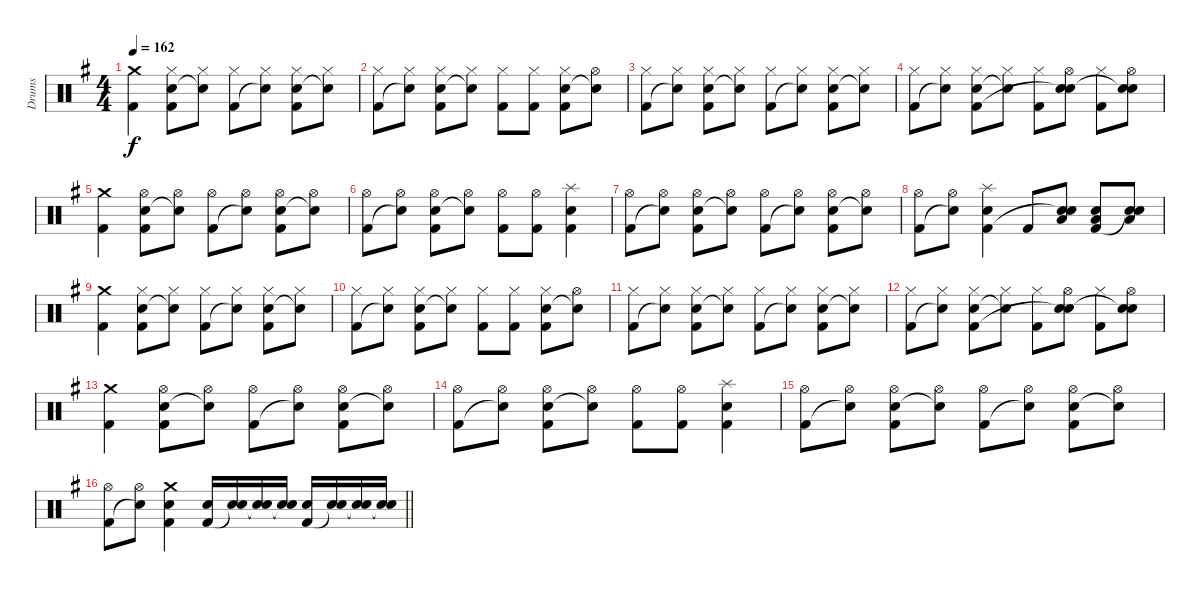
\track ("Drums" "Drums") {instrument percussion}
\staff {score}
\articulation defaults
\ts (4 4)
\tempo 162
\clef neutral
\ks g
("Crash medium (hit)" "Kick (hit) 2").4{dy f} ("Hi-Hat (closed)" "Electric Snare (hit)" "Kick (hit) 2").8 ("Hi-Hat (closed)" "Snare (hit)"{t}).8 ("Hi-Hat (closed)" "Kick (hit) 2").8 ("Hi-Hat (closed)" "Snare (hit)"{t}).8 ("Hi-Hat (closed)" "Electric Snare (hit)" "Kick (hit) 2").8 ("Hi-Hat (closed)" "Snare (hit)"{t}).8 |
("Hi-Hat (closed)" "Kick (hit) 2").8 ("Hi-Hat (closed)" "Snare (hit)"{t}).8 ("Hi-Hat (closed)" "Electric Snare (hit)" "Kick (hit) 2").8 ("Hi-Hat (closed)" "Snare (hit)"{t}).8 ("Hi-Hat (closed)" "Kick (hit) 2").8 ("Hi-Hat (closed)" "Kick (hit) 2").8 ("Hi-Hat (closed)" "Electric Snare (hit)" "Kick (hit) 2").8 ("Hi-Hat (open)" "Snare (hit)"{t}).8 |
("Hi-Hat (closed)" "Kick (hit) 2").8 ("Hi-Hat (closed)" "Snare (hit)"{t}).8 ("Hi-Hat (closed)" "Electric Snare (hit)" "Kick (hit) 2").8 ("Hi-Hat (closed)" "Snare (hit)"{t}).8 ("Hi-Hat (closed)" "Kick (hit) 2").8 ("Hi-Hat (closed)" "Snare (hit)"{t}).8 ("Hi-Hat (closed)" "Electric Snare (hit)" "Kick (hit) 2").8 ("Hi-Hat (closed)" "Snare (hit)"{t}).8 |
("Hi-Hat (closed)" "Kick (hit) 2").8 ("Hi-Hat (closed)" "Snare (hit)"{t}).8 ("Hi-Hat (closed)" "Electric Snare (hit)" "Kick (hit) 2").8 ("Hi-Hat (closed)" "Snare (hit)"{t}).8 ("Hi-Hat (closed)" "Kick (hit) 2").8 ("Hi-Hat (open)" "Electric Snare (hit)" "Snare (hit)"{t}).8 ("Hi-Hat (closed)" "Kick (hit) 2").8 ("Hi-Hat (open)" "Electric Snare (hit)" "Snare (hit)"{t}).8 |
("Crash medium (hit)" "Kick (hit) 2").4 ("Hi-Hat (open)" "Electric Snare (hit)" "Kick (hit) 2").8 ("Hi-Hat (open)" "Snare (hit)"{t}).8 ("Hi-Hat (open)" "Kick (hit) 2").8 ("Hi-Hat (open)" "Snare (hit)"{t}).8 ("Hi-Hat (open)" "Electric Snare (hit)" "Kick (hit) 2").8 ("Hi-Hat (open)" "Snare (hit)"{t}).8 |
("Hi-Hat (open)" "Kick (hit) 2").8 ("Hi-Hat (open)" "Snare (hit)"{t}).8 ("Hi-Hat (open)" "Electric Snare (hit)" "Kick (hit) 2").8 ("Hi-Hat (open)" "Snare (hit)"{t}).8 ("Hi-Hat (open)" "Kick (hit) 2").8 ("Hi-Hat (open)" "Kick (hit) 2").8 ("Splash (hit)" "Electric Snare (hit)" "Kick (hit) 2").4 |
("Hi-Hat (open)" "Kick (hit) 2").8 ("Hi-Hat (open)" "Snare (hit)"{t}).8 ("Hi-Hat (open)" "Electric Snare (hit)" "Kick (hit) 2").8 ("Hi-Hat (open)" "Snare (hit)"{t}).8 ("Hi-Hat (open)" "Kick (hit) 2").8 ("Hi-Hat (open)" "Snare (hit)"{t}).8 ("Hi-Hat (open)" "Electric Snare (hit)" "Kick (hit) 2").8 ("Hi-Hat (open)" "Snare (hit)"{t}).8 |
("Hi-Hat (open)" "Kick (hit) 2").8 ("Hi-Hat (open)" "Snare (hit)"{t}).8 ("Splash (hit)" "Electric Snare (hit)" "Kick (hit) 2").4 "Kick (hit) 2".8 ("Electric Snare (hit)" "Low Tom (hit)" "Snare (hit)"{t}).8 ("Electric Snare (hit)" "Low Tom (hit)" "Kick (hit) 2").8 ("Electric Snare (hit)" "Low Tom (hit)" "Snare (hit)"{t}).8 |
("Crash medium (hit)" "Kick (hit) 2").4 ("Hi-Hat (closed)" "Electric Snare (hit)" "Kick (hit) 2").8 ("Hi-Hat (closed)" "Snare (hit)"{t}).8 ("Hi-Hat (closed)" "Kick (hit) 2").8 ("Hi-Hat (closed)" "Snare (hit)"{t}).8 ("Hi-Hat (closed)" "Electric Snare (hit)" "Kick (hit) 2").8 ("Hi-Hat (closed)" "Snare (hit)"{t}).8 |
("Hi-Hat (closed)" "Kick (hit) 2").8 ("Hi-Hat (closed)" "Snare (hit)"{t}).8 ("Hi-Hat (closed)" "Electric Snare (hit)" "Kick (hit) 2").8 ("Hi-Hat (closed)" "Snare (hit)"{t}).8 ("Hi-Hat (closed)" "Kick (hit) 2").8 ("Hi-Hat (closed)" "Kick (hit) 2").8 ("Hi-Hat (closed)" "Electric Snare (hit)" "Kick (hit) 2").8 ("Hi-Hat (open)" "Snare (hit)"{t}).8 |
("Hi-Hat (closed)" "Kick (hit) 2").8 ("Hi-Hat (closed)" "Snare (hit)"{t}).8 ("Hi-Hat (closed)" "Electric Snare (hit)" "Kick (hit) 2").8 ("Hi-Hat (closed)" "Snare (hit)"{t}).8 ("Hi-Hat (closed)" "Kick (hit) 2").8 ("Hi-Hat (closed)" "Snare (hit)"{t}).8 ("Hi-Hat (closed)" "Electric Snare (hit)" "Kick (hit) 2").8 ("Hi-Hat (closed)" "Snare (hit)"{t}).8 |
("Hi-Hat (closed)" "Kick (hit) 2").8 ("Hi-Hat (closed)" "Snare (hit)"{t}).8 ("Hi-Hat (closed)" "Electric Snare (hit)" "Kick (hit) 2").8 ("Hi-Hat (closed)" "Snare (hit)"{t}).8 ("Hi-Hat (closed)" "Kick (hit) 2").8 ("Hi-Hat (open)" "Electric Snare (hit)" "Snare (hit)"{t}).8 ("Hi-Hat (closed)" "Kick (hit) 2").8 ("Hi-Hat (open)" "Electric Snare (hit)" "Snare (hit)"{t}).8 |
("Crash medium (hit)" "Kick (hit) 2").4 ("Hi-Hat (open)" "Electric Snare (hit)" "Kick (hit) 2").8 ("Hi-Hat (open)" "Snare (hit)"{t}).8 ("Hi-Hat (open)" "Kick (hit) 2").8 ("Hi-Hat (open)" "Snare (hit)"{t}).8 ("Hi-Hat (open)" "Electric Snare (hit)" "Kick (hit) 2").8 ("Hi-Hat (open)" "Snare (hit)"{t}).8 |
("Hi-Hat (open)" "Kick (hit) 2").8 ("Hi-Hat (open)" "Snare (hit)"{t}).8 ("Hi-Hat (open)" "Electric Snare (hit)" "Kick (hit) 2").8 ("Hi-Hat (open)" "Snare (hit)"{t}).8 ("Hi-Hat (open)" "Kick (hit) 2").8 ("Hi-Hat (open)" "Kick (hit) 2").8 ("Splash (hit)" "Electric Snare (hit)" "Kick (hit) 2").4 |
("Hi-Hat (open)" "Kick (hit) 2").8 ("Hi-Hat (open)" "Snare (hit)"{t}).8 ("Hi-Hat (open)" "Electric Snare (hit)" "Kick (hit) 2").8 ("Hi-Hat (open)" "Snare (hit)"{t}).8 ("Hi-Hat (open)" "Kick (hit) 2").8 ("Hi-Hat (open)" "Snare (hit)"{t}).8 ("Hi-Hat (open)" "Electric Snare (hit)" "Kick (hit) 2").8 ("Hi-Hat (open)" "Snare (hit)"{t}).8 |
\barLineRight lightlight
("Hi-Hat (open)" "Kick (hit) 2").8 ("Hi-Hat (open)" "Snare (hit)"{t}).8 ("Crash medium (hit)" "Electric Snare (hit)" "Kick (hit) 2").4 ("Electric Snare (hit)" "Kick (hit) 2").16 ("Electric Snare (hit)" "Snare (hit)"{t}).16 ("Electric Snare (hit)" "Snare (hit)"{t}).16 ("Electric Snare (hit)" "Snare (hit)"{t}).16 ("Electric Snare (hit)" "Kick (hit) 2").16 ("Electric Snare (hit)" "Snare (hit)"{t}).16 ("Electric Snare (hit)" "Snare (hit)"{t}).16 ("Electric Snare (hit)" "Snare (hit)"{t}).16
